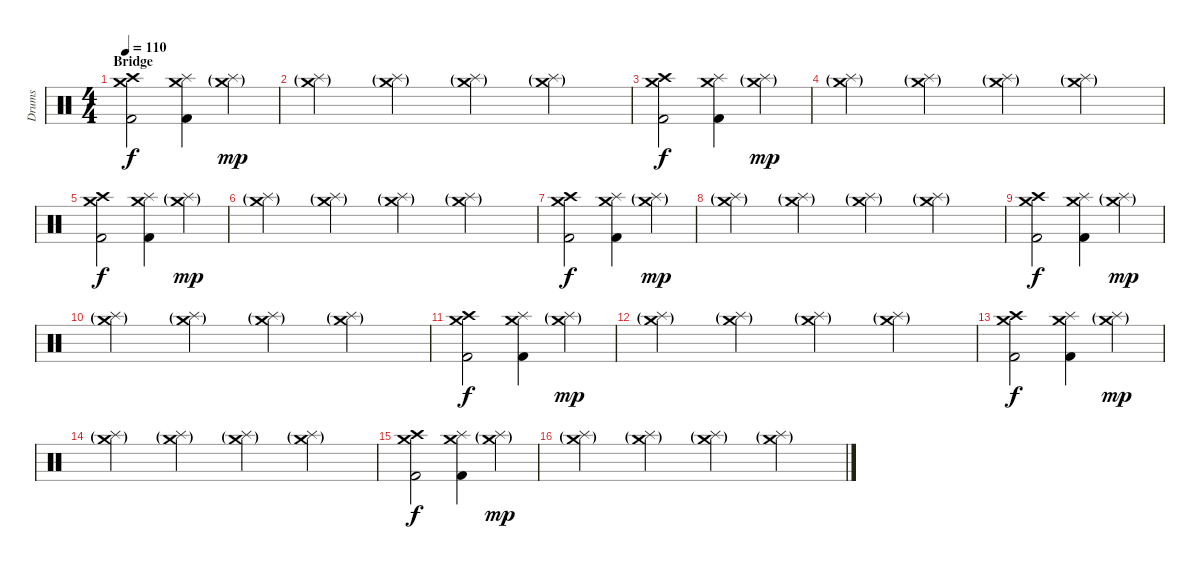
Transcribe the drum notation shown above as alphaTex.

\track ("Drums" "Drums") {instrument percussion}
\staff {score}
\articulation defaults
\ts (4 4)
\section ("" "Bridge")
\tempo 110
\clef neutral
\ks c
("Crash medium (hit)" "Crash high (hit)" "Kick (hit) 2").2{dy f} ("Splash (hit)" "Crash medium (hit)" "Kick (hit) 2").4 ("Splash (hit)"{g} "Crash medium (hit)"{g}).4{dy mp} |
("Splash (hit)"{g} "Crash medium (hit)"{g}).4 ("Splash (hit)"{g} "Crash medium (hit)"{g}).4 ("Splash (hit)"{g} "Crash medium (hit)"{g}).4 ("Splash (hit)"{g} "Crash medium (hit)"{g}).4 |
("Crash medium (hit)" "Crash high (hit)" "Kick (hit) 2").2{dy f} ("Splash (hit)" "Crash medium (hit)" "Kick (hit) 2").4 ("Splash (hit)"{g} "Crash medium (hit)"{g}).4{dy mp} |
("Splash (hit)"{g} "Crash medium (hit)"{g}).4 ("Splash (hit)"{g} "Crash medium (hit)"{g}).4 ("Splash (hit)"{g} "Crash medium (hit)"{g}).4 ("Splash (hit)"{g} "Crash medium (hit)"{g}).4 |
("Crash medium (hit)" "Crash high (hit)" "Kick (hit) 2").2{dy f} ("Splash (hit)" "Crash medium (hit)" "Kick (hit) 2").4 ("Splash (hit)"{g} "Crash medium (hit)"{g}).4{dy mp} |
("Splash (hit)"{g} "Crash medium (hit)"{g}).4 ("Splash (hit)"{g} "Crash medium (hit)"{g}).4 ("Splash (hit)"{g} "Crash medium (hit)"{g}).4 ("Splash (hit)"{g} "Crash medium (hit)"{g}).4 |
("Crash medium (hit)" "Crash high (hit)" "Kick (hit) 2").2{dy f} ("Splash (hit)" "Crash medium (hit)" "Kick (hit) 2").4 ("Splash (hit)"{g} "Crash medium (hit)"{g}).4{dy mp} |
("Splash (hit)"{g} "Crash medium (hit)"{g}).4 ("Splash (hit)"{g} "Crash medium (hit)"{g}).4 ("Splash (hit)"{g} "Crash medium (hit)"{g}).4 ("Splash (hit)"{g} "Crash medium (hit)"{g}).4 |
("Crash medium (hit)" "Crash high (hit)" "Kick (hit) 2").2{dy f} ("Splash (hit)" "Crash medium (hit)" "Kick (hit) 2").4 ("Splash (hit)"{g} "Crash medium (hit)"{g}).4{dy mp} |
("Splash (hit)"{g} "Crash medium (hit)"{g}).4 ("Splash (hit)"{g} "Crash medium (hit)"{g}).4 ("Splash (hit)"{g} "Crash medium (hit)"{g}).4 ("Splash (hit)"{g} "Crash medium (hit)"{g}).4 |
("Crash medium (hit)" "Crash high (hit)" "Kick (hit) 2").2{dy f} ("Splash (hit)" "Crash medium (hit)" "Kick (hit) 2").4 ("Splash (hit)"{g} "Crash medium (hit)"{g}).4{dy mp} |
("Splash (hit)"{g} "Crash medium (hit)"{g}).4 ("Splash (hit)"{g} "Crash medium (hit)"{g}).4 ("Splash (hit)"{g} "Crash medium (hit)"{g}).4 ("Splash (hit)"{g} "Crash medium (hit)"{g}).4 |
("Crash medium (hit)" "Crash high (hit)" "Kick (hit) 2").2{dy f} ("Splash (hit)" "Crash medium (hit)" "Kick (hit) 2").4 ("Splash (hit)"{g} "Crash medium (hit)"{g}).4{dy mp} |
("Splash (hit)"{g} "Crash medium (hit)"{g}).4 ("Splash (hit)"{g} "Crash medium (hit)"{g}).4 ("Splash (hit)"{g} "Crash medium (hit)"{g}).4 ("Splash (hit)"{g} "Crash medium (hit)"{g}).4 |
("Crash medium (hit)" "Crash high (hit)" "Kick (hit) 2").2{dy f} ("Splash (hit)" "Crash medium (hit)" "Kick (hit) 2").4 ("Splash (hit)"{g} "Crash medium (hit)"{g}).4{dy mp} |
("Splash (hit)"{g} "Crash medium (hit)"{g}).4 ("Splash (hit)"{g} "Crash medium (hit)"{g}).4 ("Splash (hit)"{g} "Crash medium (hit)"{g}).4 ("Splash (hit)"{g} "Crash medium (hit)"{g}).4
